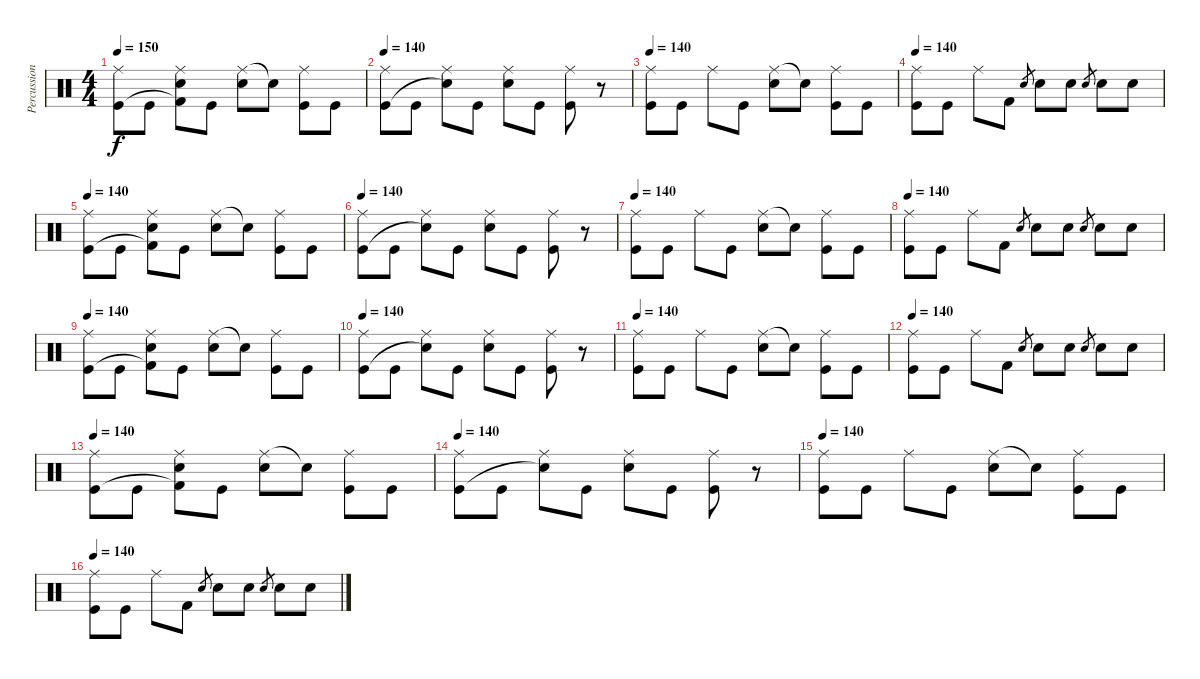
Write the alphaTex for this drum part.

\track ("Percussion" "Percussion") {instrument percussion}
\staff {score}
\articulation defaults
\ts (4 4)
\tempo 150
\tempo 140
\tempo 150
\clef neutral
\ks c
("Ride (middle)" "Kick (hit)").8{dy f} "Kick (hit)".8 ("Ride (middle)" "Kick (hit) 2"{t} "Snare (hit)").8 "Kick (hit)".8 ("Ride (middle)" "Electric Snare (hit)").8 "Snare (hit)"{t}.8 ("Ride (middle)" "Kick (hit)").8 "Kick (hit)".8 |
\tempo 140
("Ride (middle)" "Kick (hit)").8 "Kick (hit)".8 ("Ride (middle)" "Snare (hit)"{t}).8 "Kick (hit)".8 ("Ride (middle)" "Electric Snare (hit)").8 "Kick (hit)".8 ("Ride (middle)" "Kick (hit)").8 r.8 |
\tempo 140
("Ride (middle)" "Kick (hit)").8 "Kick (hit)".8 "Ride (middle)".8 "Kick (hit)".8 ("Ride (middle)" "Electric Snare (hit)").8 "Snare (hit)"{t}.8 ("Ride (middle)" "Kick (hit)").8 "Kick (hit)".8 |
\tempo 140
("Ride (middle)" "Kick (hit)").8 "Kick (hit)".8 "Ride (middle)".8 "Kick (hit) 2".8 "Electric Snare (hit)".8{gr} "Electric Snare (hit)".8 "Electric Snare (hit)".8 "Electric Snare (hit)".8{gr} "Electric Snare (hit)".8 "Electric Snare (hit)".8 |
\tempo 140
("Ride (middle)" "Kick (hit)").8 "Kick (hit)".8 ("Ride (middle)" "Kick (hit) 2"{t} "Snare (hit)").8 "Kick (hit)".8 ("Ride (middle)" "Electric Snare (hit)").8 "Snare (hit)"{t}.8 ("Ride (middle)" "Kick (hit)").8 "Kick (hit)".8 |
\tempo 140
("Ride (middle)" "Kick (hit)").8 "Kick (hit)".8 ("Ride (middle)" "Snare (hit)"{t}).8 "Kick (hit)".8 ("Ride (middle)" "Electric Snare (hit)").8 "Kick (hit)".8 ("Ride (middle)" "Kick (hit)").8 r.8 |
\tempo 140
("Ride (middle)" "Kick (hit)").8 "Kick (hit)".8 "Ride (middle)".8 "Kick (hit)".8 ("Ride (middle)" "Electric Snare (hit)").8 "Snare (hit)"{t}.8 ("Ride (middle)" "Kick (hit)").8 "Kick (hit)".8 |
\tempo 140
("Ride (middle)" "Kick (hit)").8 "Kick (hit)".8 "Ride (middle)".8 "Kick (hit) 2".8 "Electric Snare (hit)".8{gr} "Electric Snare (hit)".8 "Electric Snare (hit)".8 "Electric Snare (hit)".8{gr} "Electric Snare (hit)".8 "Electric Snare (hit)".8 |
\tempo 140
("Ride (middle)" "Kick (hit)").8 "Kick (hit)".8 ("Ride (middle)" "Kick (hit) 2"{t} "Snare (hit)").8 "Kick (hit)".8 ("Ride (middle)" "Electric Snare (hit)").8 "Snare (hit)"{t}.8 ("Ride (middle)" "Kick (hit)").8 "Kick (hit)".8 |
\tempo 140
("Ride (middle)" "Kick (hit)").8 "Kick (hit)".8 ("Ride (middle)" "Snare (hit)"{t}).8 "Kick (hit)".8 ("Ride (middle)" "Electric Snare (hit)").8 "Kick (hit)".8 ("Ride (middle)" "Kick (hit)").8 r.8 |
\tempo 140
("Ride (middle)" "Kick (hit)").8 "Kick (hit)".8 "Ride (middle)".8 "Kick (hit)".8 ("Ride (middle)" "Electric Snare (hit)").8 "Snare (hit)"{t}.8 ("Ride (middle)" "Kick (hit)").8 "Kick (hit)".8 |
\tempo 140
("Ride (middle)" "Kick (hit)").8 "Kick (hit)".8 "Ride (middle)".8 "Kick (hit) 2".8 "Electric Snare (hit)".8{gr} "Electric Snare (hit)".8 "Electric Snare (hit)".8 "Electric Snare (hit)".8{gr} "Electric Snare (hit)".8 "Electric Snare (hit)".8 |
\tempo 140
("Ride (middle)" "Kick (hit)").8 "Kick (hit)".8 ("Ride (middle)" "Kick (hit) 2"{t} "Snare (hit)").8 "Kick (hit)".8 ("Ride (middle)" "Electric Snare (hit)").8 "Snare (hit)"{t}.8 ("Ride (middle)" "Kick (hit)").8 "Kick (hit)".8 |
\tempo 140
("Ride (middle)" "Kick (hit)").8 "Kick (hit)".8 ("Ride (middle)" "Snare (hit)"{t}).8 "Kick (hit)".8 ("Ride (middle)" "Electric Snare (hit)").8 "Kick (hit)".8 ("Ride (middle)" "Kick (hit)").8 r.8 |
\tempo 140
("Ride (middle)" "Kick (hit)").8 "Kick (hit)".8 "Ride (middle)".8 "Kick (hit)".8 ("Ride (middle)" "Electric Snare (hit)").8 "Snare (hit)"{t}.8 ("Ride (middle)" "Kick (hit)").8 "Kick (hit)".8 |
\tempo 140
("Ride (middle)" "Kick (hit)").8 "Kick (hit)".8 "Ride (middle)".8 "Kick (hit) 2".8 "Electric Snare (hit)".8{gr} "Electric Snare (hit)".8 "Electric Snare (hit)".8 "Electric Snare (hit)".8{gr} "Electric Snare (hit)".8 "Electric Snare (hit)".8
